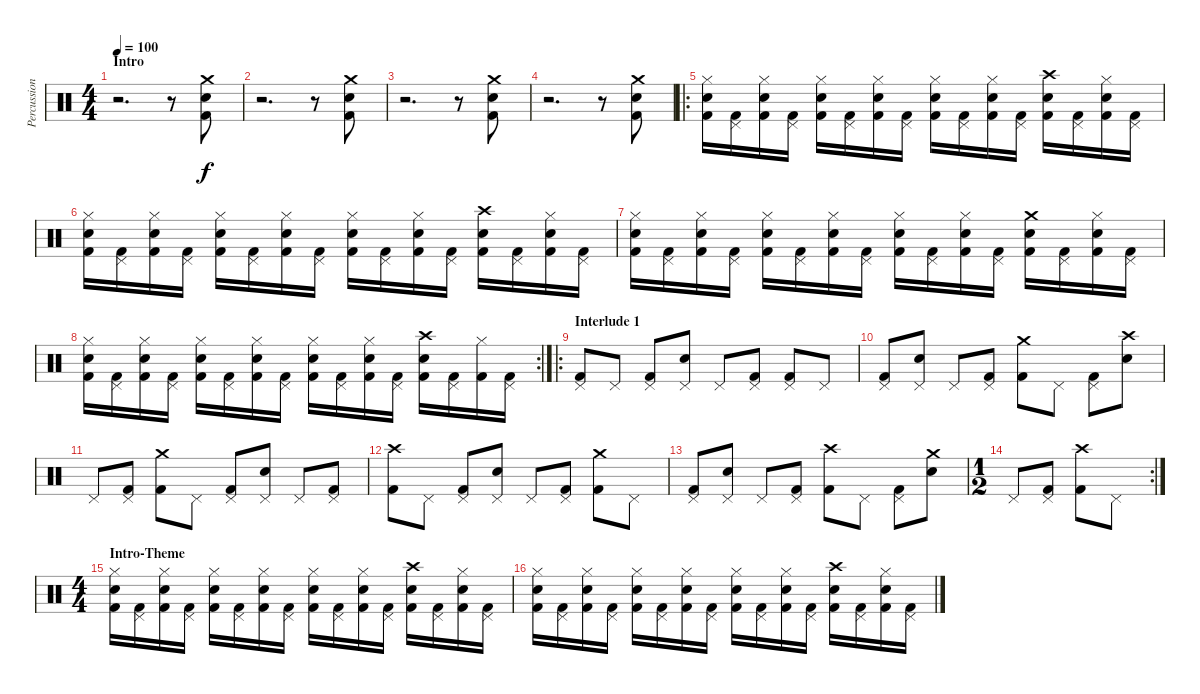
\track ("Percussion" "Percussion") {instrument percussion}
\staff {score}
\articulation defaults
\ts (4 4)
\section ("" "Intro")
\tempo 100
\clef neutral
\ks c
r.2{d dy f} r.8 ("Crash medium (hit)" "Snare (hit) 2" "Kick (hit) 2").8 |
r.2{d} r.8 ("Crash medium (hit)" "Snare (hit) 2" "Kick (hit) 2").8 |
r.2{d} r.8 ("Crash medium (hit)" "Snare (hit) 2" "Kick (hit) 2").8 |
r.2{d} r.8 ("Crash medium (hit)" "Snare (hit) 2" "Kick (hit) 2").8 |
\ro
("Hi-Hat (closed)" "Snare (hit) 2" "Kick (hit) 2").16 ("Pedal Hi-Hat (hit)" "Kick (hit) 2").16 ("Hi-Hat (closed)" "Snare (hit) 2" "Kick (hit) 2").16 ("Pedal Hi-Hat (hit)" "Kick (hit) 2").16 ("Hi-Hat (closed)" "Snare (hit) 2" "Kick (hit) 2").16 ("Pedal Hi-Hat (hit)" "Kick (hit) 2").16 ("Hi-Hat (closed)" "Snare (hit) 2" "Kick (hit) 2").16 ("Pedal Hi-Hat (hit)" "Kick (hit) 2").16 ("Hi-Hat (closed)" "Snare (hit) 2" "Kick (hit) 2").16 ("Pedal Hi-Hat (hit)" "Kick (hit) 2").16 ("Hi-Hat (closed)" "Snare (hit) 2" "Kick (hit) 2").16 ("Pedal Hi-Hat (hit)" "Kick (hit) 2").16 ("Crash high (hit)" "Snare (hit) 2" "Kick (hit) 2").16 ("Pedal Hi-Hat (hit)" "Kick (hit) 2").16 ("Hi-Hat (closed)" "Snare (hit) 2" "Kick (hit) 2").16 ("Pedal Hi-Hat (hit)" "Kick (hit) 2").16 |
("Hi-Hat (closed)" "Snare (hit) 2" "Kick (hit) 2").16 ("Pedal Hi-Hat (hit)" "Kick (hit) 2").16 ("Hi-Hat (closed)" "Snare (hit) 2" "Kick (hit) 2").16 ("Pedal Hi-Hat (hit)" "Kick (hit) 2").16 ("Hi-Hat (closed)" "Snare (hit) 2" "Kick (hit) 2").16 ("Pedal Hi-Hat (hit)" "Kick (hit) 2").16 ("Hi-Hat (closed)" "Snare (hit) 2" "Kick (hit) 2").16 ("Pedal Hi-Hat (hit)" "Kick (hit) 2").16 ("Hi-Hat (closed)" "Snare (hit) 2" "Kick (hit) 2").16 ("Pedal Hi-Hat (hit)" "Kick (hit) 2").16 ("Hi-Hat (closed)" "Snare (hit) 2" "Kick (hit) 2").16 ("Pedal Hi-Hat (hit)" "Kick (hit) 2").16 ("Crash high (hit)" "Snare (hit) 2" "Kick (hit) 2").16 ("Pedal Hi-Hat (hit)" "Kick (hit) 2").16 ("Hi-Hat (closed)" "Snare (hit) 2" "Kick (hit) 2").16 ("Pedal Hi-Hat (hit)" "Kick (hit) 2").16 |
("Hi-Hat (closed)" "Snare (hit) 2" "Kick (hit) 2").16 ("Pedal Hi-Hat (hit)" "Kick (hit) 2").16 ("Hi-Hat (closed)" "Snare (hit) 2" "Kick (hit) 2").16 ("Pedal Hi-Hat (hit)" "Kick (hit) 2").16 ("Hi-Hat (closed)" "Snare (hit) 2" "Kick (hit) 2").16 ("Pedal Hi-Hat (hit)" "Kick (hit) 2").16 ("Hi-Hat (closed)" "Snare (hit) 2" "Kick (hit) 2").16 ("Pedal Hi-Hat (hit)" "Kick (hit) 2").16 ("Hi-Hat (closed)" "Snare (hit) 2" "Kick (hit) 2").16 ("Pedal Hi-Hat (hit)" "Kick (hit) 2").16 ("Hi-Hat (closed)" "Snare (hit) 2" "Kick (hit) 2").16 ("Pedal Hi-Hat (hit)" "Kick (hit) 2").16 ("Crash medium (hit)" "Snare (hit) 2" "Kick (hit) 2").16 ("Pedal Hi-Hat (hit)" "Kick (hit) 2").16 ("Hi-Hat (closed)" "Snare (hit) 2" "Kick (hit) 2").16 ("Pedal Hi-Hat (hit)" "Kick (hit) 2").16 |
\rc 2
("Hi-Hat (closed)" "Snare (hit) 2" "Kick (hit) 2").16 ("Pedal Hi-Hat (hit)" "Kick (hit) 2").16 ("Hi-Hat (closed)" "Snare (hit) 2" "Kick (hit) 2").16 ("Pedal Hi-Hat (hit)" "Kick (hit) 2").16 ("Hi-Hat (closed)" "Snare (hit) 2" "Kick (hit) 2").16 ("Pedal Hi-Hat (hit)" "Kick (hit) 2").16 ("Hi-Hat (closed)" "Snare (hit) 2" "Kick (hit) 2").16 ("Pedal Hi-Hat (hit)" "Kick (hit) 2").16 ("Hi-Hat (closed)" "Snare (hit) 2" "Kick (hit) 2").16 ("Pedal Hi-Hat (hit)" "Kick (hit) 2").16 ("Hi-Hat (closed)" "Snare (hit) 2" "Kick (hit) 2").16 ("Pedal Hi-Hat (hit)" "Kick (hit) 2").16 ("Crash high (hit)" "Snare (hit) 2" "Kick (hit) 2").16 ("Pedal Hi-Hat (hit)" "Kick (hit) 2").16 ("Hi-Hat (closed)" "Kick (hit) 2").16 ("Pedal Hi-Hat (hit)" "Kick (hit) 2").16 |
\ro
\section ("" "Interlude 1")
("Pedal Hi-Hat (hit)" "Kick (hit) 2").8 "Pedal Hi-Hat (hit)".8 ("Pedal Hi-Hat (hit)" "Kick (hit) 2").8 ("Pedal Hi-Hat (hit)" "Snare (hit) 2").8 "Pedal Hi-Hat (hit)".8 ("Pedal Hi-Hat (hit)" "Kick (hit) 2").8 ("Pedal Hi-Hat (hit)" "Kick (hit) 2").8 "Pedal Hi-Hat (hit)".8 |
("Pedal Hi-Hat (hit)" "Kick (hit) 2").8 ("Pedal Hi-Hat (hit)" "Snare (hit) 2").8 "Pedal Hi-Hat (hit)".8 ("Pedal Hi-Hat (hit)" "Kick (hit) 2").8 ("Crash medium (hit)" "Kick (hit) 2").8 "Pedal Hi-Hat (hit)".8 ("Pedal Hi-Hat (hit)" "Kick (hit) 2").8 ("Crash high (hit)" "Snare (hit) 2").8 |
"Pedal Hi-Hat (hit)".8 ("Pedal Hi-Hat (hit)" "Kick (hit) 2").8 ("Crash medium (hit)" "Kick (hit) 2").8 "Pedal Hi-Hat (hit)".8 ("Pedal Hi-Hat (hit)" "Kick (hit) 2").8 ("Pedal Hi-Hat (hit)" "Snare (hit) 2").8 "Pedal Hi-Hat (hit)".8 ("Pedal Hi-Hat (hit)" "Kick (hit) 2").8 |
("Crash high (hit)" "Kick (hit) 2").8 "Pedal Hi-Hat (hit)".8 ("Pedal Hi-Hat (hit)" "Kick (hit) 2").8 ("Pedal Hi-Hat (hit)" "Snare (hit) 2").8 "Pedal Hi-Hat (hit)".8 ("Pedal Hi-Hat (hit)" "Kick (hit) 2").8 ("Crash medium (hit)" "Kick (hit) 2").8 "Pedal Hi-Hat (hit)".8 |
("Pedal Hi-Hat (hit)" "Kick (hit) 2").8 ("Pedal Hi-Hat (hit)" "Snare (hit) 2").8 "Pedal Hi-Hat (hit)".8 ("Pedal Hi-Hat (hit)" "Kick (hit) 2").8 ("Crash high (hit)" "Kick (hit) 2").8 "Pedal Hi-Hat (hit)".8 ("Pedal Hi-Hat (hit)" "Kick (hit) 2").8 ("Crash medium (hit)" "Snare (hit) 2").8 |
\rc 2
\ts (1 2)
"Pedal Hi-Hat (hit)".8 ("Pedal Hi-Hat (hit)" "Kick (hit) 2").8 ("Crash high (hit)" "Kick (hit) 2").8 "Pedal Hi-Hat (hit)".8 |
\ts (4 4)
\section ("" "Intro-Theme")
("Hi-Hat (closed)" "Snare (hit) 2" "Kick (hit) 2").16 ("Pedal Hi-Hat (hit)" "Kick (hit) 2").16 ("Hi-Hat (closed)" "Snare (hit) 2" "Kick (hit) 2").16 ("Pedal Hi-Hat (hit)" "Kick (hit) 2").16 ("Hi-Hat (closed)" "Snare (hit) 2" "Kick (hit) 2").16 ("Pedal Hi-Hat (hit)" "Kick (hit) 2").16 ("Hi-Hat (closed)" "Snare (hit) 2" "Kick (hit) 2").16 ("Pedal Hi-Hat (hit)" "Kick (hit) 2").16 ("Hi-Hat (closed)" "Snare (hit) 2" "Kick (hit) 2").16 ("Pedal Hi-Hat (hit)" "Kick (hit) 2").16 ("Hi-Hat (closed)" "Snare (hit) 2" "Kick (hit) 2").16 ("Pedal Hi-Hat (hit)" "Kick (hit) 2").16 ("Crash high (hit)" "Snare (hit) 2" "Kick (hit) 2").16 ("Pedal Hi-Hat (hit)" "Kick (hit) 2").16 ("Hi-Hat (closed)" "Snare (hit) 2" "Kick (hit) 2").16 ("Pedal Hi-Hat (hit)" "Kick (hit) 2").16 |
("Hi-Hat (closed)" "Snare (hit) 2" "Kick (hit) 2").16 ("Pedal Hi-Hat (hit)" "Kick (hit) 2").16 ("Hi-Hat (closed)" "Snare (hit) 2" "Kick (hit) 2").16 ("Pedal Hi-Hat (hit)" "Kick (hit) 2").16 ("Hi-Hat (closed)" "Snare (hit) 2" "Kick (hit) 2").16 ("Pedal Hi-Hat (hit)" "Kick (hit) 2").16 ("Hi-Hat (closed)" "Snare (hit) 2" "Kick (hit) 2").16 ("Pedal Hi-Hat (hit)" "Kick (hit) 2").16 ("Hi-Hat (closed)" "Snare (hit) 2" "Kick (hit) 2").16 ("Pedal Hi-Hat (hit)" "Kick (hit) 2").16 ("Hi-Hat (closed)" "Snare (hit) 2" "Kick (hit) 2").16 ("Pedal Hi-Hat (hit)" "Kick (hit) 2").16 ("Crash high (hit)" "Snare (hit) 2" "Kick (hit) 2").16 ("Pedal Hi-Hat (hit)" "Kick (hit) 2").16 ("Hi-Hat (closed)" "Snare (hit) 2" "Kick (hit) 2").16 ("Pedal Hi-Hat (hit)" "Kick (hit) 2").16
